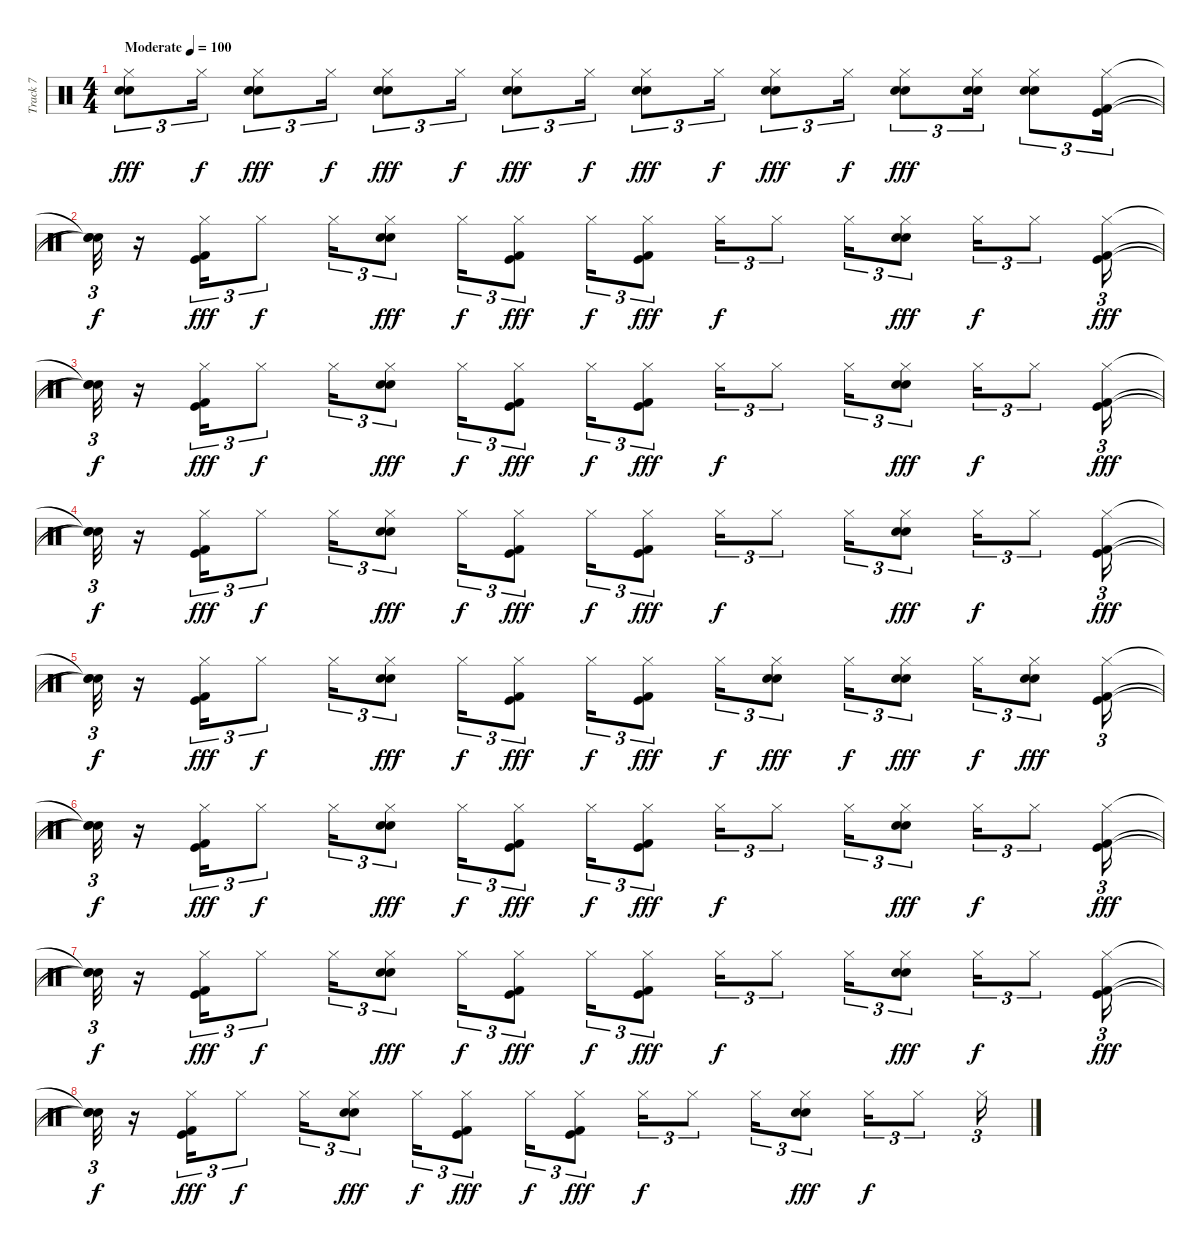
\track ("Track 7" "Track 7") {instrument percussion}
\staff {score}
\articulation defaults
\ts (4 4)
\tempo (100 "Moderate")
\clef neutral
\ks c
("Hi-Hat (closed)" "Snare (hit) 2" "Electric Snare (hit)").8{tu (3 2) dy fff} "Hi-Hat (closed)".16{tu (3 2) dy f} ("Hi-Hat (closed)" "Snare (hit) 2" "Electric Snare (hit)").8{tu (3 2) dy fff} "Hi-Hat (closed)".16{tu (3 2) dy f} ("Hi-Hat (closed)" "Snare (hit) 2" "Electric Snare (hit)").8{tu (3 2) dy fff} "Hi-Hat (closed)".16{tu (3 2) dy f} ("Hi-Hat (closed)" "Snare (hit) 2" "Electric Snare (hit)").8{tu (3 2) dy fff} "Hi-Hat (closed)".16{tu (3 2) dy f} ("Hi-Hat (closed)" "Snare (hit) 2" "Electric Snare (hit)").8{tu (3 2) dy fff} "Hi-Hat (closed)".16{tu (3 2) dy f} ("Hi-Hat (closed)" "Snare (hit) 2" "Electric Snare (hit)").8{tu (3 2) dy fff} "Hi-Hat (closed)".16{tu (3 2) dy f} ("Hi-Hat (closed)" "Snare (hit) 2" "Electric Snare (hit)").8{tu (3 2) dy fff} ("Hi-Hat (closed)" "Electric Snare (hit)" "Snare (hit) 2").16{tu (3 2)} ("Hi-Hat (closed)" "Snare (hit) 2" "Electric Snare (hit)").8{tu (3 2)} ("Hi-Hat (closed)" "Kick (hit)" "Kick (hit) 2").16{tu (3 2)} |
("Snare (hit)"{t} "Snare (hit)"{t} "Snare (hit)"{t}).32{tu (3 2) dy f} r.16 ("Hi-Hat (closed)" "Kick (hit)" "Kick (hit) 2").16{tu (3 2) dy fff} "Hi-Hat (closed)".8{tu (3 2) dy f} "Hi-Hat (closed)".16{tu (3 2)} ("Hi-Hat (closed)" "Snare (hit) 2" "Electric Snare (hit)").8{tu (3 2) dy fff} "Hi-Hat (closed)".16{tu (3 2) dy f} ("Hi-Hat (closed)" "Kick (hit)" "Kick (hit) 2").8{tu (3 2) dy fff} "Hi-Hat (closed)".16{tu (3 2) dy f} ("Hi-Hat (closed)" "Kick (hit)" "Kick (hit) 2").8{tu (3 2) dy fff} "Hi-Hat (closed)".16{tu (3 2) dy f} "Hi-Hat (closed)".8{tu (3 2)} "Hi-Hat (closed)".16{tu (3 2)} ("Hi-Hat (closed)" "Snare (hit) 2" "Electric Snare (hit)").8{tu (3 2) dy fff} "Hi-Hat (closed)".16{tu (3 2) dy f} "Hi-Hat (closed)".8{tu (3 2)} ("Hi-Hat (closed)" "Kick (hit)" "Kick (hit) 2").16{tu (3 2) dy fff} |
("Snare (hit)"{t} "Snare (hit)"{t} "Snare (hit)"{t}).32{tu (3 2) dy f} r.16 ("Hi-Hat (closed)" "Kick (hit)" "Kick (hit) 2").16{tu (3 2) dy fff} "Hi-Hat (closed)".8{tu (3 2) dy f} "Hi-Hat (closed)".16{tu (3 2)} ("Hi-Hat (closed)" "Snare (hit) 2" "Electric Snare (hit)").8{tu (3 2) dy fff} "Hi-Hat (closed)".16{tu (3 2) dy f} ("Hi-Hat (closed)" "Kick (hit)" "Kick (hit) 2").8{tu (3 2) dy fff} "Hi-Hat (closed)".16{tu (3 2) dy f} ("Hi-Hat (closed)" "Kick (hit)" "Kick (hit) 2").8{tu (3 2) dy fff} "Hi-Hat (closed)".16{tu (3 2) dy f} "Hi-Hat (closed)".8{tu (3 2)} "Hi-Hat (closed)".16{tu (3 2)} ("Hi-Hat (closed)" "Snare (hit) 2" "Electric Snare (hit)").8{tu (3 2) dy fff} "Hi-Hat (closed)".16{tu (3 2) dy f} "Hi-Hat (closed)".8{tu (3 2)} ("Hi-Hat (closed)" "Kick (hit)" "Kick (hit) 2").16{tu (3 2) dy fff} |
("Snare (hit)"{t} "Snare (hit)"{t} "Snare (hit)"{t}).32{tu (3 2) dy f} r.16 ("Hi-Hat (closed)" "Kick (hit)" "Kick (hit) 2").16{tu (3 2) dy fff} "Hi-Hat (closed)".8{tu (3 2) dy f} "Hi-Hat (closed)".16{tu (3 2)} ("Hi-Hat (closed)" "Snare (hit) 2" "Electric Snare (hit)").8{tu (3 2) dy fff} "Hi-Hat (closed)".16{tu (3 2) dy f} ("Hi-Hat (closed)" "Kick (hit)" "Kick (hit) 2").8{tu (3 2) dy fff} "Hi-Hat (closed)".16{tu (3 2) dy f} ("Hi-Hat (closed)" "Kick (hit)" "Kick (hit) 2").8{tu (3 2) dy fff} "Hi-Hat (closed)".16{tu (3 2) dy f} "Hi-Hat (closed)".8{tu (3 2)} "Hi-Hat (closed)".16{tu (3 2)} ("Hi-Hat (closed)" "Snare (hit) 2" "Electric Snare (hit)").8{tu (3 2) dy fff} "Hi-Hat (closed)".16{tu (3 2) dy f} "Hi-Hat (closed)".8{tu (3 2)} ("Hi-Hat (closed)" "Kick (hit)" "Kick (hit) 2").16{tu (3 2) dy fff} |
("Snare (hit)"{t} "Snare (hit)"{t} "Snare (hit)"{t}).32{tu (3 2) dy f} r.16 ("Hi-Hat (closed)" "Kick (hit)" "Kick (hit) 2").16{tu (3 2) dy fff} "Hi-Hat (closed)".8{tu (3 2) dy f} "Hi-Hat (closed)".16{tu (3 2)} ("Hi-Hat (closed)" "Snare (hit) 2" "Electric Snare (hit)").8{tu (3 2) dy fff} "Hi-Hat (closed)".16{tu (3 2) dy f} ("Hi-Hat (closed)" "Kick (hit)" "Kick (hit) 2").8{tu (3 2) dy fff} "Hi-Hat (closed)".16{tu (3 2) dy f} ("Hi-Hat (closed)" "Kick (hit)" "Kick (hit) 2").8{tu (3 2) dy fff} "Hi-Hat (closed)".16{tu (3 2) dy f} ("Snare (hit) 2" "Electric Snare (hit)" "Hi-Hat (closed)").8{tu (3 2) dy fff} "Hi-Hat (closed)".16{tu (3 2) dy f} ("Hi-Hat (closed)" "Snare (hit) 2" "Electric Snare (hit)").8{tu (3 2) dy fff} "Hi-Hat (closed)".16{tu (3 2) dy f} ("Snare (hit) 2" "Electric Snare (hit)" "Hi-Hat (closed)").8{tu (3 2) dy fff} ("Hi-Hat (closed)" "Kick (hit)" "Kick (hit) 2").16{tu (3 2)} |
("Snare (hit)"{t} "Snare (hit)"{t} "Snare (hit)"{t}).32{tu (3 2) dy f} r.16 ("Hi-Hat (closed)" "Kick (hit)" "Kick (hit) 2").16{tu (3 2) dy fff} "Hi-Hat (closed)".8{tu (3 2) dy f} "Hi-Hat (closed)".16{tu (3 2)} ("Hi-Hat (closed)" "Snare (hit) 2" "Electric Snare (hit)").8{tu (3 2) dy fff} "Hi-Hat (closed)".16{tu (3 2) dy f} ("Hi-Hat (closed)" "Kick (hit)" "Kick (hit) 2").8{tu (3 2) dy fff} "Hi-Hat (closed)".16{tu (3 2) dy f} ("Hi-Hat (closed)" "Kick (hit)" "Kick (hit) 2").8{tu (3 2) dy fff} "Hi-Hat (closed)".16{tu (3 2) dy f} "Hi-Hat (closed)".8{tu (3 2)} "Hi-Hat (closed)".16{tu (3 2)} ("Hi-Hat (closed)" "Snare (hit) 2" "Electric Snare (hit)").8{tu (3 2) dy fff} "Hi-Hat (closed)".16{tu (3 2) dy f} "Hi-Hat (closed)".8{tu (3 2)} ("Hi-Hat (closed)" "Kick (hit)" "Kick (hit) 2").16{tu (3 2) dy fff} |
("Snare (hit)"{t} "Snare (hit)"{t} "Snare (hit)"{t}).32{tu (3 2) dy f} r.16 ("Hi-Hat (closed)" "Kick (hit)" "Kick (hit) 2").16{tu (3 2) dy fff} "Hi-Hat (closed)".8{tu (3 2) dy f} "Hi-Hat (closed)".16{tu (3 2)} ("Hi-Hat (closed)" "Snare (hit) 2" "Electric Snare (hit)").8{tu (3 2) dy fff} "Hi-Hat (closed)".16{tu (3 2) dy f} ("Hi-Hat (closed)" "Kick (hit)" "Kick (hit) 2").8{tu (3 2) dy fff} "Hi-Hat (closed)".16{tu (3 2) dy f} ("Hi-Hat (closed)" "Kick (hit)" "Kick (hit) 2").8{tu (3 2) dy fff} "Hi-Hat (closed)".16{tu (3 2) dy f} "Hi-Hat (closed)".8{tu (3 2)} "Hi-Hat (closed)".16{tu (3 2)} ("Hi-Hat (closed)" "Snare (hit) 2" "Electric Snare (hit)").8{tu (3 2) dy fff} "Hi-Hat (closed)".16{tu (3 2) dy f} "Hi-Hat (closed)".8{tu (3 2)} ("Hi-Hat (closed)" "Kick (hit)" "Kick (hit) 2").16{tu (3 2) dy fff} |
("Snare (hit)"{t} "Snare (hit)"{t} "Snare (hit)"{t}).32{tu (3 2) dy f} r.16 ("Hi-Hat (closed)" "Kick (hit)" "Kick (hit) 2").16{tu (3 2) dy fff} "Hi-Hat (closed)".8{tu (3 2) dy f} "Hi-Hat (closed)".16{tu (3 2)} ("Hi-Hat (closed)" "Snare (hit) 2" "Electric Snare (hit)").8{tu (3 2) dy fff} "Hi-Hat (closed)".16{tu (3 2) dy f} ("Hi-Hat (closed)" "Kick (hit)" "Kick (hit) 2").8{tu (3 2) dy fff} "Hi-Hat (closed)".16{tu (3 2) dy f} ("Hi-Hat (closed)" "Kick (hit)" "Kick (hit) 2").8{tu (3 2) dy fff} "Hi-Hat (closed)".16{tu (3 2) dy f} "Hi-Hat (closed)".8{tu (3 2)} "Hi-Hat (closed)".16{tu (3 2)} ("Hi-Hat (closed)" "Snare (hit) 2" "Electric Snare (hit)").8{tu (3 2) dy fff} "Hi-Hat (closed)".16{tu (3 2) dy f} "Hi-Hat (closed)".8{tu (3 2)} "Hi-Hat (closed)".16{tu (3 2)}
